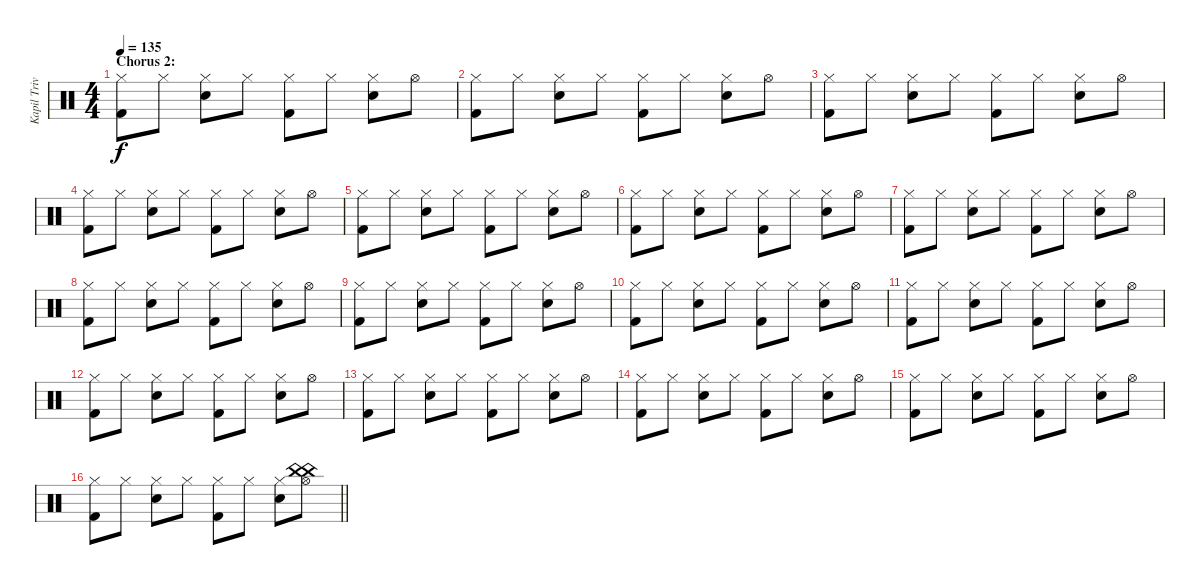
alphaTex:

\track ("Kapil Trivedi (Percussion)" "Kapil Triv") {instrument percussion}
\staff {score}
\articulation defaults
\ts (4 4)
\section ("" "Chorus 2:")
\tempo 135
\clef neutral
\ks c
("Hi-Hat (closed)" "Kick (hit) 2").8{dy f} "Hi-Hat (closed)".8 ("Hi-Hat (closed)" "Snare (hit) 2").8 "Hi-Hat (closed)".8 ("Hi-Hat (closed)" "Kick (hit) 2").8 "Hi-Hat (closed)".8 ("Hi-Hat (closed)" "Snare (hit) 2").8 "Hi-Hat (open)".8 |
("Hi-Hat (closed)" "Kick (hit) 2").8 "Hi-Hat (closed)".8 ("Hi-Hat (closed)" "Snare (hit) 2").8 "Hi-Hat (closed)".8 ("Hi-Hat (closed)" "Kick (hit) 2").8 "Hi-Hat (closed)".8 ("Hi-Hat (closed)" "Snare (hit) 2").8 "Hi-Hat (open)".8 |
("Hi-Hat (closed)" "Kick (hit) 2").8 "Hi-Hat (closed)".8 ("Hi-Hat (closed)" "Snare (hit) 2").8 "Hi-Hat (closed)".8 ("Hi-Hat (closed)" "Kick (hit) 2").8 "Hi-Hat (closed)".8 ("Hi-Hat (closed)" "Snare (hit) 2").8 "Hi-Hat (open)".8 |
("Hi-Hat (closed)" "Kick (hit) 2").8 "Hi-Hat (closed)".8 ("Hi-Hat (closed)" "Snare (hit) 2").8 "Hi-Hat (closed)".8 ("Hi-Hat (closed)" "Kick (hit) 2").8 "Hi-Hat (closed)".8 ("Hi-Hat (closed)" "Snare (hit) 2").8 "Hi-Hat (open)".8 |
("Hi-Hat (closed)" "Kick (hit) 2").8 "Hi-Hat (closed)".8 ("Hi-Hat (closed)" "Snare (hit) 2").8 "Hi-Hat (closed)".8 ("Hi-Hat (closed)" "Kick (hit) 2").8 "Hi-Hat (closed)".8 ("Hi-Hat (closed)" "Snare (hit) 2").8 "Hi-Hat (open)".8 |
("Hi-Hat (closed)" "Kick (hit) 2").8 "Hi-Hat (closed)".8 ("Hi-Hat (closed)" "Snare (hit) 2").8 "Hi-Hat (closed)".8 ("Hi-Hat (closed)" "Kick (hit) 2").8 "Hi-Hat (closed)".8 ("Hi-Hat (closed)" "Snare (hit) 2").8 "Hi-Hat (open)".8 |
("Hi-Hat (closed)" "Kick (hit) 2").8 "Hi-Hat (closed)".8 ("Hi-Hat (closed)" "Snare (hit) 2").8 "Hi-Hat (closed)".8 ("Hi-Hat (closed)" "Kick (hit) 2").8 "Hi-Hat (closed)".8 ("Hi-Hat (closed)" "Snare (hit) 2").8 "Hi-Hat (open)".8 |
("Hi-Hat (closed)" "Kick (hit) 2").8 "Hi-Hat (closed)".8 ("Hi-Hat (closed)" "Snare (hit) 2").8 "Hi-Hat (closed)".8 ("Hi-Hat (closed)" "Kick (hit) 2").8 "Hi-Hat (closed)".8 ("Hi-Hat (closed)" "Snare (hit) 2").8 "Hi-Hat (open)".8 |
("Hi-Hat (closed)" "Kick (hit) 2").8 "Hi-Hat (closed)".8 ("Hi-Hat (closed)" "Snare (hit) 2").8 "Hi-Hat (closed)".8 ("Hi-Hat (closed)" "Kick (hit) 2").8 "Hi-Hat (closed)".8 ("Hi-Hat (closed)" "Snare (hit) 2").8 "Hi-Hat (open)".8 |
("Hi-Hat (closed)" "Kick (hit) 2").8 "Hi-Hat (closed)".8 ("Hi-Hat (closed)" "Snare (hit) 2").8 "Hi-Hat (closed)".8 ("Hi-Hat (closed)" "Kick (hit) 2").8 "Hi-Hat (closed)".8 ("Hi-Hat (closed)" "Snare (hit) 2").8 "Hi-Hat (open)".8 |
("Hi-Hat (closed)" "Kick (hit) 2").8 "Hi-Hat (closed)".8 ("Hi-Hat (closed)" "Snare (hit) 2").8 "Hi-Hat (closed)".8 ("Hi-Hat (closed)" "Kick (hit) 2").8 "Hi-Hat (closed)".8 ("Hi-Hat (closed)" "Snare (hit) 2").8 "Hi-Hat (open)".8 |
("Hi-Hat (closed)" "Kick (hit) 2").8 "Hi-Hat (closed)".8 ("Hi-Hat (closed)" "Snare (hit) 2").8 "Hi-Hat (closed)".8 ("Hi-Hat (closed)" "Kick (hit) 2").8 "Hi-Hat (closed)".8 ("Hi-Hat (closed)" "Snare (hit) 2").8 "Hi-Hat (open)".8 |
("Hi-Hat (closed)" "Kick (hit) 2").8 "Hi-Hat (closed)".8 ("Hi-Hat (closed)" "Snare (hit) 2").8 "Hi-Hat (closed)".8 ("Hi-Hat (closed)" "Kick (hit) 2").8 "Hi-Hat (closed)".8 ("Hi-Hat (closed)" "Snare (hit) 2").8 "Hi-Hat (open)".8 |
("Hi-Hat (closed)" "Kick (hit) 2").8 "Hi-Hat (closed)".8 ("Hi-Hat (closed)" "Snare (hit) 2").8 "Hi-Hat (closed)".8 ("Hi-Hat (closed)" "Kick (hit) 2").8 "Hi-Hat (closed)".8 ("Hi-Hat (closed)" "Snare (hit) 2").8 "Hi-Hat (open)".8 |
("Hi-Hat (closed)" "Kick (hit) 2").8 "Hi-Hat (closed)".8 ("Hi-Hat (closed)" "Snare (hit) 2").8 "Hi-Hat (closed)".8 ("Hi-Hat (closed)" "Kick (hit) 2").8 "Hi-Hat (closed)".8 ("Hi-Hat (closed)" "Snare (hit) 2").8 "Hi-Hat (open)".8 |
\barLineRight lightlight
("Hi-Hat (closed)" "Kick (hit) 2").8 "Hi-Hat (closed)".8 ("Hi-Hat (closed)" "Snare (hit) 2").8 "Hi-Hat (closed)".8 ("Hi-Hat (closed)" "Kick (hit) 2").8 "Hi-Hat (closed)".8 ("Hi-Hat (closed)" "Snare (hit) 2").8 ("Hi-Hat (open)" "China (hit)" "China (hit)").8
